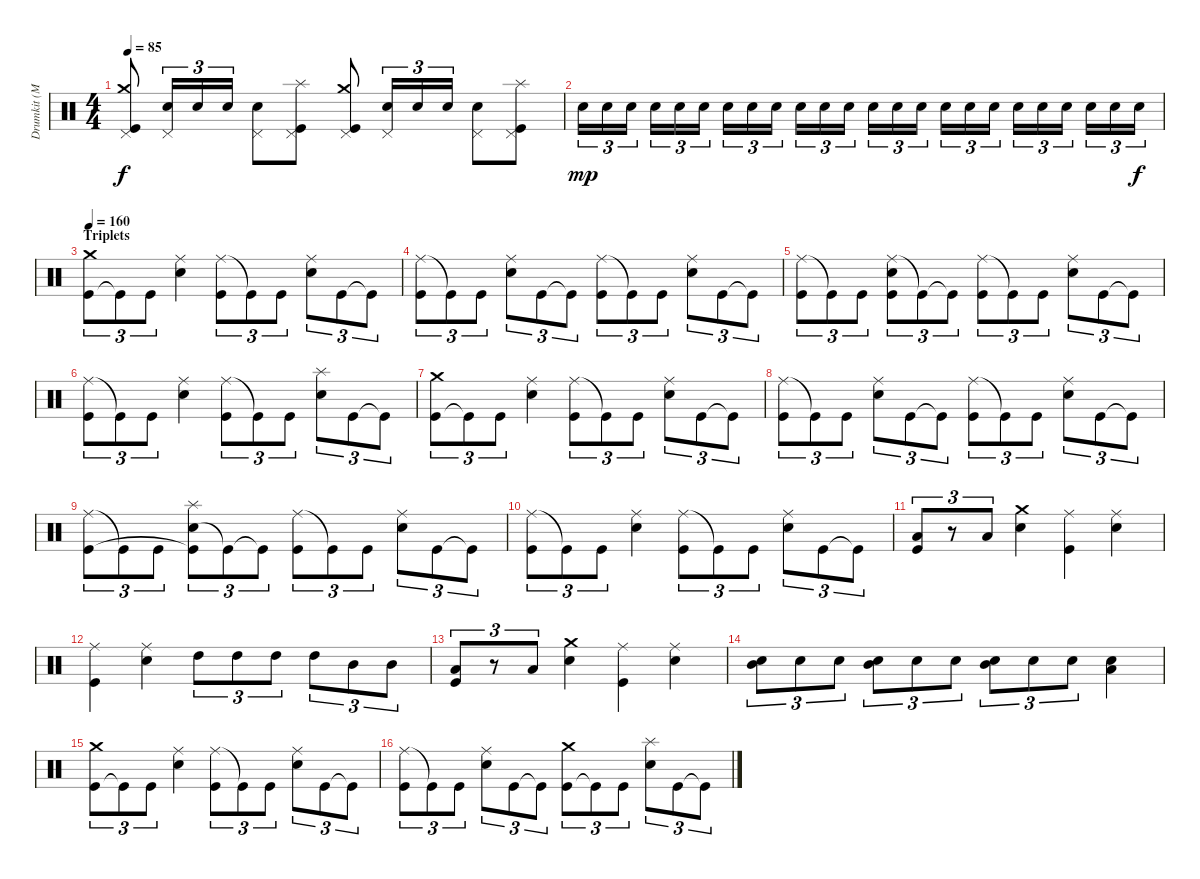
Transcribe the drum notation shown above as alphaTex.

\track ("Drumkit (McBrain)" "Drumkit (M") {instrument percussion}
\staff {score}
\articulation defaults
\ts (4 4)
\tempo 85
\clef neutral
\ks c
("Kick (hit)" "Crash medium (hit)" "Pedal Hi-Hat (hit)").8{dy f} ("Snare (hit) 2" "Pedal Hi-Hat (hit)").16{tu (3 2)} "Snare (hit) 2".16{tu (3 2)} "Snare (hit) 2".16{tu (3 2)} ("Snare (hit) 2" "Pedal Hi-Hat (hit)").8 ("Kick (hit)" "Splash (hit)" "Pedal Hi-Hat (hit)").8 ("Kick (hit)" "Crash medium (hit)" "Pedal Hi-Hat (hit)").8 ("Snare (hit) 2" "Pedal Hi-Hat (hit)").16{tu (3 2)} "Snare (hit) 2".16{tu (3 2)} "Snare (hit) 2".16{tu (3 2)} ("Snare (hit) 2" "Pedal Hi-Hat (hit)").8 ("Kick (hit)" "Splash (hit)" "Pedal Hi-Hat (hit)").8 |
"Snare (hit) 2".16{tu (3 2) dy mp} "Snare (hit) 2".16{tu (3 2)} "Snare (hit) 2".16{tu (3 2)} "Snare (hit) 2".16{tu (3 2)} "Snare (hit) 2".16{tu (3 2)} "Snare (hit) 2".16{tu (3 2)} "Snare (hit) 2".16{tu (3 2)} "Snare (hit) 2".16{tu (3 2)} "Snare (hit) 2".16{tu (3 2)} "Snare (hit) 2".16{tu (3 2)} "Snare (hit) 2".16{tu (3 2)} "Snare (hit) 2".16{tu (3 2)} "Snare (hit) 2".16{tu (3 2)} "Snare (hit) 2".16{tu (3 2)} "Snare (hit) 2".16{tu (3 2)} "Snare (hit) 2".16{tu (3 2)} "Snare (hit) 2".16{tu (3 2)} "Snare (hit) 2".16{tu (3 2)} "Snare (hit) 2".16{tu (3 2)} "Snare (hit) 2".16{tu (3 2)} "Snare (hit) 2".16{tu (3 2)} "Snare (hit) 2".16{tu (3 2)} "Snare (hit) 2".16{tu (3 2)} "Snare (hit) 2".16{tu (3 2) dy f} |
\section ("" "Triplets")
\tempo 160
("Kick (hit)" "Crash medium (hit)").8{tu (3 2)} "Kick (hit)"{t}.8{tu (3 2)} "Kick (hit)".8{tu (3 2)} ("Ride (middle)" "Snare (hit) 2").4 ("Ride (middle)" "Kick (hit)").8{tu (3 2)} "Kick (hit)"{t}.8{tu (3 2)} "Kick (hit)".8{tu (3 2)} ("Ride (middle)" "Snare (hit) 2").8{tu (3 2)} "Kick (hit)".8{tu (3 2)} "Kick (hit)"{t}.8{tu (3 2)} |
("Ride (middle)" "Kick (hit)").8{tu (3 2)} "Kick (hit)"{t}.8{tu (3 2)} "Kick (hit)".8{tu (3 2)} ("Ride (middle)" "Snare (hit) 2").8{tu (3 2)} "Kick (hit)".8{tu (3 2)} "Kick (hit)"{t}.8{tu (3 2)} ("Ride (middle)" "Kick (hit)").8{tu (3 2)} "Kick (hit)"{t}.8{tu (3 2)} "Kick (hit)".8{tu (3 2)} ("Ride (middle)" "Snare (hit) 2").8{tu (3 2)} "Kick (hit)".8{tu (3 2)} "Kick (hit)"{t}.8{tu (3 2)} |
("Ride (middle)" "Kick (hit)").8{tu (3 2)} "Kick (hit)"{t}.8{tu (3 2)} "Kick (hit)".8{tu (3 2)} ("Ride (middle)" "Snare (hit) 2" "Kick (hit)").8{tu (3 2)} "Kick (hit)"{t}.8{tu (3 2)} "Kick (hit)"{t}.8{tu (3 2)} ("Ride (middle)" "Kick (hit)").8{tu (3 2)} "Kick (hit)"{t}.8{tu (3 2)} "Kick (hit)".8{tu (3 2)} ("Ride (middle)" "Snare (hit) 2").8{tu (3 2)} "Kick (hit)".8{tu (3 2)} "Kick (hit)"{t}.8{tu (3 2)} |
("Ride (middle)" "Kick (hit)").8{tu (3 2)} "Kick (hit)"{t}.8{tu (3 2)} "Kick (hit)".8{tu (3 2)} ("Ride (middle)" "Snare (hit) 2").4 ("Ride (middle)" "Kick (hit)").8{tu (3 2)} "Kick (hit)"{t}.8{tu (3 2)} "Kick (hit)".8{tu (3 2)} ("Snare (hit) 2" "Splash (hit)").8{tu (3 2)} "Kick (hit)".8{tu (3 2)} "Kick (hit)"{t}.8{tu (3 2)} |
("Kick (hit)" "Crash medium (hit)").8{tu (3 2)} "Kick (hit)"{t}.8{tu (3 2)} "Kick (hit)".8{tu (3 2)} ("Ride (middle)" "Snare (hit) 2").4 ("Ride (middle)" "Kick (hit)").8{tu (3 2)} "Kick (hit)"{t}.8{tu (3 2)} "Kick (hit)".8{tu (3 2)} ("Ride (middle)" "Snare (hit) 2").8{tu (3 2)} "Kick (hit)".8{tu (3 2)} "Kick (hit)"{t}.8{tu (3 2)} |
("Ride (middle)" "Kick (hit)").8{tu (3 2)} "Kick (hit)"{t}.8{tu (3 2)} "Kick (hit)".8{tu (3 2)} ("Ride (middle)" "Snare (hit) 2").8{tu (3 2)} "Kick (hit)".8{tu (3 2)} "Kick (hit)"{t}.8{tu (3 2)} ("Ride (middle)" "Kick (hit)").8{tu (3 2)} "Kick (hit)"{t}.8{tu (3 2)} "Kick (hit)".8{tu (3 2)} ("Ride (middle)" "Snare (hit) 2").8{tu (3 2)} "Kick (hit)".8{tu (3 2)} "Kick (hit)"{t}.8{tu (3 2)} |
("Ride (middle)" "Kick (hit)").8{tu (3 2)} "Kick (hit)"{t}.8{tu (3 2)} "Kick (hit)".8{tu (3 2)} ("Snare (hit) 2" "Kick (hit)"{t} "Splash (hit)").8{tu (3 2)} "Kick (hit)"{t}.8{tu (3 2)} "Kick (hit)"{t}.8{tu (3 2)} ("Ride (middle)" "Kick (hit)").8{tu (3 2)} "Kick (hit)"{t}.8{tu (3 2)} "Kick (hit)".8{tu (3 2)} ("Ride (middle)" "Snare (hit) 2").8{tu (3 2)} "Kick (hit)".8{tu (3 2)} "Kick (hit)"{t}.8{tu (3 2)} |
("Ride (middle)" "Kick (hit)").8{tu (3 2)} "Kick (hit)"{t}.8{tu (3 2)} "Kick (hit)".8{tu (3 2)} ("Ride (middle)" "Snare (hit) 2").4 ("Ride (middle)" "Kick (hit)").8{tu (3 2)} "Kick (hit)"{t}.8{tu (3 2)} "Kick (hit)".8{tu (3 2)} ("Snare (hit) 2" "Ride (middle)").8{tu (3 2)} "Kick (hit)".8{tu (3 2)} "Kick (hit)"{t}.8{tu (3 2)} |
("Low Tom (hit)" "Kick (hit)").8{tu (3 2)} r.8{tu (3 2)} "Low Tom (hit)".8{tu (3 2)} ("Crash medium (hit)" "Snare (hit) 2").4 ("Ride (middle)" "Kick (hit)").4 ("Snare (hit) 2" "Ride (middle)").4 |
("Ride (middle)" "Kick (hit)").4 ("Snare (hit) 2" "Ride (middle)").4 "High Tom (hit)".8{tu (3 2)} "High Tom (hit)".8{tu (3 2)} "High Tom (hit)".8{tu (3 2)} "High Tom (hit)".8{tu (3 2)} "Mid Tom (hit)".8{tu (3 2)} "Mid Tom (hit)".8{tu (3 2)} |
("Low Tom (hit)" "Kick (hit)").8{tu (3 2)} r.8{tu (3 2)} "Low Tom (hit)".8{tu (3 2)} ("Crash medium (hit)" "Snare (hit) 2").4 ("Ride (middle)" "Kick (hit)").4 ("Snare (hit) 2" "Ride (middle)").4 |
("Snare (hit) 2" "Mid Tom (hit)").8{tu (3 2)} "Snare (hit) 2".8{tu (3 2)} "Snare (hit) 2".8{tu (3 2)} ("Snare (hit) 2" "Mid Tom (hit)").8{tu (3 2)} "Snare (hit) 2".8{tu (3 2)} "Snare (hit) 2".8{tu (3 2)} ("Snare (hit) 2" "Mid Tom (hit)").8{tu (3 2)} "Snare (hit) 2".8{tu (3 2)} "Snare (hit) 2".8{tu (3 2)} ("Snare (hit) 2" "Low Tom (hit)").4 |
("Kick (hit)" "Crash medium (hit)").8{tu (3 2)} "Kick (hit)"{t}.8{tu (3 2)} "Kick (hit)".8{tu (3 2)} ("Ride (middle)" "Snare (hit) 2").4 ("Ride (middle)" "Kick (hit)").8{tu (3 2)} "Kick (hit)"{t}.8{tu (3 2)} "Kick (hit)".8{tu (3 2)} ("Ride (middle)" "Snare (hit) 2").8{tu (3 2)} "Kick (hit)".8{tu (3 2)} "Kick (hit)"{t}.8{tu (3 2)} |
("Ride (middle)" "Kick (hit)").8{tu (3 2)} "Kick (hit)"{t}.8{tu (3 2)} "Kick (hit)".8{tu (3 2)} ("Ride (middle)" "Snare (hit) 2").8{tu (3 2)} "Kick (hit)".8{tu (3 2)} "Kick (hit)"{t}.8{tu (3 2)} ("Kick (hit)" "Crash medium (hit)").8{tu (3 2)} "Kick (hit)"{t}.8{tu (3 2)} "Kick (hit)".8{tu (3 2)} ("Snare (hit) 2" "Splash (hit)").8{tu (3 2)} "Kick (hit)".8{tu (3 2)} "Kick (hit)"{t}.8{tu (3 2)}
